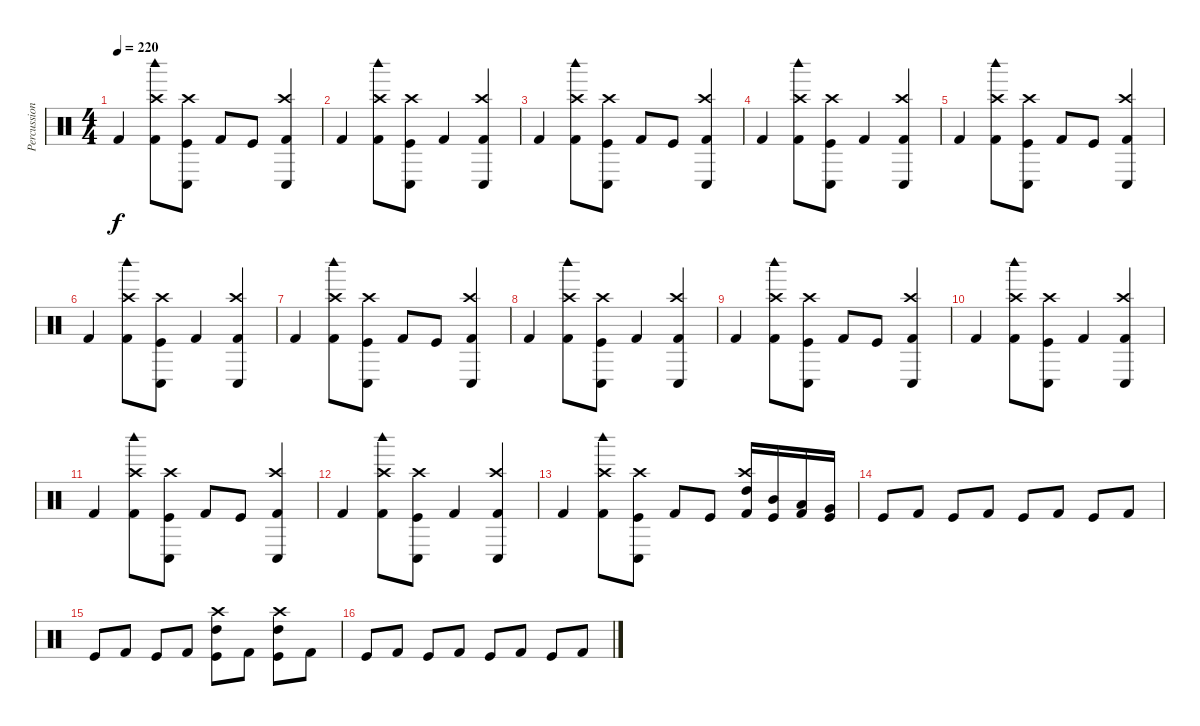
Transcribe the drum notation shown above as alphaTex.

\track ("Percussions" "Percussion") {instrument percussion}
\staff {score}
\articulation defaults
\ts (4 4)
\tempo 220
\clef neutral
\ks c "Kick (hit) 2".4{dy f}
("Kick (hit) 2" "Crash high (hit)" "Woodblock high (hit)").8 ("Kick (hit)" "Crash high (hit)" "Conga low (hit)").8 "Kick (hit) 2".8 "Kick (hit)".8 ("Kick (hit) 2" "Crash high (hit)" "Conga low (hit)").4 |
"Kick (hit) 2".4 ("Kick (hit) 2" "Crash high (hit)" "Woodblock high (hit)").8 ("Kick (hit)" "Crash high (hit)" "Conga low (hit)").8 "Kick (hit) 2".4 ("Kick (hit) 2" "Crash high (hit)" "Conga low (hit)").4 |
"Kick (hit) 2".4 ("Kick (hit) 2" "Crash high (hit)" "Woodblock high (hit)").8 ("Kick (hit)" "Crash high (hit)" "Conga low (hit)").8 "Kick (hit) 2".8 "Kick (hit)".8 ("Kick (hit) 2" "Crash high (hit)" "Conga low (hit)").4 |
"Kick (hit) 2".4 ("Kick (hit) 2" "Crash high (hit)" "Woodblock high (hit)").8 ("Kick (hit)" "Crash high (hit)" "Conga low (hit)").8 "Kick (hit) 2".4 ("Kick (hit) 2" "Crash high (hit)" "Conga low (hit)").4 |
"Kick (hit) 2".4 ("Kick (hit) 2" "Crash high (hit)" "Woodblock high (hit)").8 ("Kick (hit)" "Crash high (hit)" "Conga low (hit)").8 "Kick (hit) 2".8 "Kick (hit)".8 ("Kick (hit) 2" "Crash high (hit)" "Conga low (hit)").4 |
"Kick (hit) 2".4 ("Kick (hit) 2" "Crash high (hit)" "Woodblock high (hit)").8 ("Kick (hit)" "Crash high (hit)" "Conga low (hit)").8 "Kick (hit) 2".4 ("Kick (hit) 2" "Crash high (hit)" "Conga low (hit)").4 |
"Kick (hit) 2".4 ("Kick (hit) 2" "Crash high (hit)" "Woodblock high (hit)").8 ("Kick (hit)" "Crash high (hit)" "Conga low (hit)").8 "Kick (hit) 2".8 "Kick (hit)".8 ("Kick (hit) 2" "Crash high (hit)" "Conga low (hit)").4 |
"Kick (hit) 2".4 ("Kick (hit) 2" "Crash high (hit)" "Woodblock high (hit)").8 ("Kick (hit)" "Crash high (hit)" "Conga low (hit)").8 "Kick (hit) 2".4 ("Kick (hit) 2" "Crash high (hit)" "Conga low (hit)").4 |
"Kick (hit) 2".4 ("Kick (hit) 2" "Crash high (hit)" "Woodblock high (hit)").8 ("Kick (hit)" "Crash high (hit)" "Conga low (hit)").8 "Kick (hit) 2".8 "Kick (hit)".8 ("Kick (hit) 2" "Crash high (hit)" "Conga low (hit)").4 |
"Kick (hit) 2".4 ("Kick (hit) 2" "Crash high (hit)" "Woodblock high (hit)").8 ("Kick (hit)" "Crash high (hit)" "Conga low (hit)").8 "Kick (hit) 2".4 ("Kick (hit) 2" "Crash high (hit)" "Conga low (hit)").4 |
"Kick (hit) 2".4 ("Kick (hit) 2" "Crash high (hit)" "Woodblock high (hit)").8 ("Kick (hit)" "Crash high (hit)" "Conga low (hit)").8 "Kick (hit) 2".8 "Kick (hit)".8 ("Kick (hit) 2" "Crash high (hit)" "Conga low (hit)").4 |
"Kick (hit) 2".4 ("Kick (hit) 2" "Crash high (hit)" "Woodblock high (hit)").8 ("Kick (hit)" "Crash high (hit)" "Conga low (hit)").8 "Kick (hit) 2".4 ("Kick (hit) 2" "Crash high (hit)" "Conga low (hit)").4 |
"Kick (hit) 2".4 ("Kick (hit) 2" "Crash high (hit)" "Woodblock high (hit)").8 ("Kick (hit)" "Crash high (hit)" "Conga low (hit)").8 "Kick (hit) 2".8 "Kick (hit)".8 ("Kick (hit) 2" "High Tom (hit)" "Crash high (hit)").16 ("Kick (hit)" "Mid Tom (hit)").16 ("Kick (hit) 2" "Low Tom (hit)").16 ("Kick (hit)" "Very Low Tom (hit)").16 |
"Kick (hit)".8 "Kick (hit) 2".8 "Kick (hit)".8 "Kick (hit) 2".8 "Kick (hit)".8 "Kick (hit) 2".8 "Kick (hit)".8 "Kick (hit) 2".8 |
"Kick (hit)".8 "Kick (hit) 2".8 "Kick (hit)".8 "Kick (hit) 2".8 ("Kick (hit)" "Crash high (hit)" "High Tom (hit)").8 "Kick (hit) 2".8 ("Kick (hit)" "Crash high (hit)" "High Tom (hit)").8 "Kick (hit) 2".8 |
"Kick (hit)".8 "Kick (hit) 2".8 "Kick (hit)".8 "Kick (hit) 2".8 "Kick (hit)".8 "Kick (hit) 2".8 "Kick (hit)".8 "Kick (hit) 2".8
